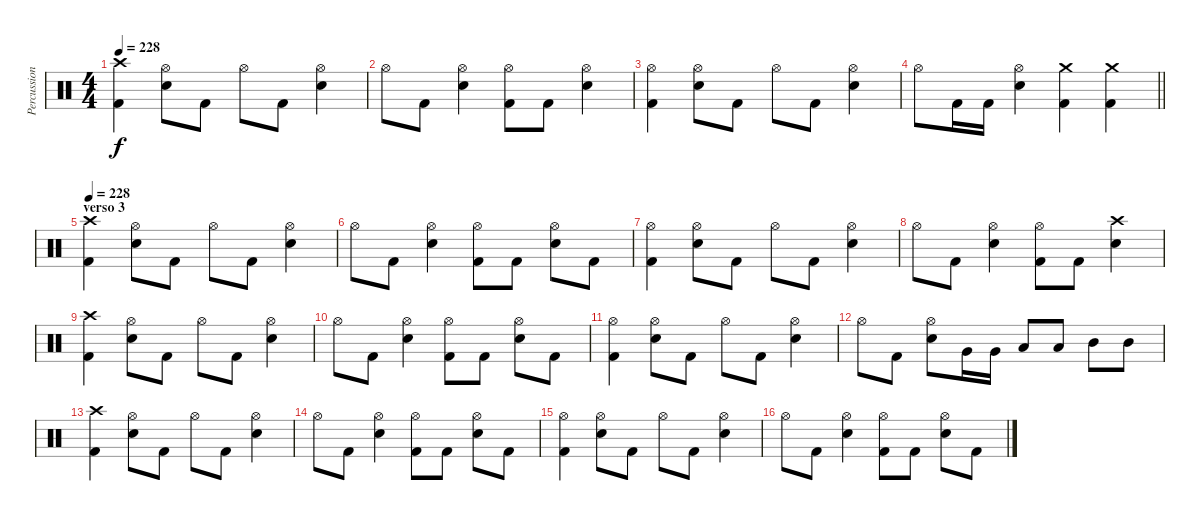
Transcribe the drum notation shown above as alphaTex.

\track ("Percussion" "Percussion") {instrument percussion}
\staff {score}
\articulation defaults
\ts (4 4)
\tempo 228
\clef neutral
\ks c
("Crash high (hit)" "Kick (hit) 2").4{dy f} ("Hi-Hat (open)" "Snare (hit) 2").8 "Kick (hit) 2".8 "Hi-Hat (open)".8 "Kick (hit) 2".8 ("Hi-Hat (open)" "Snare (hit) 2").4 |
"Hi-Hat (open)".8 "Kick (hit) 2".8 ("Hi-Hat (open)" "Snare (hit) 2").4 ("Hi-Hat (open)" "Kick (hit) 2").8 "Kick (hit) 2".8 ("Hi-Hat (open)" "Snare (hit) 2").4 |
("Hi-Hat (open)" "Kick (hit) 2").4 ("Hi-Hat (open)" "Snare (hit) 2").8 "Kick (hit) 2".8 "Hi-Hat (open)".8 "Kick (hit) 2".8 ("Hi-Hat (open)" "Snare (hit) 2").4 |
\barLineRight lightlight "Hi-Hat (open)".8 "Kick (hit) 2".16 "Kick (hit) 2".16
("Hi-Hat (open)" "Snare (hit) 2").4 ("Crash medium (hit)" "Kick (hit) 2").4 ("Crash medium (hit)" "Kick (hit) 2").4 |
\section ("" "verso 3")
\tempo 228
("Crash high (hit)" "Kick (hit) 2").4 ("Hi-Hat (open)" "Snare (hit) 2").8 "Kick (hit) 2".8 "Hi-Hat (open)".8 "Kick (hit) 2".8 ("Hi-Hat (open)" "Snare (hit) 2").4 |
"Hi-Hat (open)".8 "Kick (hit) 2".8 ("Hi-Hat (open)" "Snare (hit) 2").4 ("Hi-Hat (open)" "Kick (hit) 2").8 "Kick (hit) 2".8 ("Hi-Hat (open)" "Snare (hit) 2").8 "Kick (hit) 2".8 |
("Hi-Hat (open)" "Kick (hit) 2").4 ("Hi-Hat (open)" "Snare (hit) 2").8 "Kick (hit) 2".8 "Hi-Hat (open)".8 "Kick (hit) 2".8 ("Hi-Hat (open)" "Snare (hit) 2").4 |
"Hi-Hat (open)".8 "Kick (hit) 2".8 ("Hi-Hat (open)" "Snare (hit) 2").4 ("Hi-Hat (open)" "Kick (hit) 2").8 "Kick (hit) 2".8 ("Crash high (hit)" "Snare (hit) 2").4 |
("Crash high (hit)" "Kick (hit) 2").4 ("Hi-Hat (open)" "Snare (hit) 2").8 "Kick (hit) 2".8 "Hi-Hat (open)".8 "Kick (hit) 2".8 ("Hi-Hat (open)" "Snare (hit) 2").4 |
"Hi-Hat (open)".8 "Kick (hit) 2".8 ("Hi-Hat (open)" "Snare (hit) 2").4 ("Hi-Hat (open)" "Kick (hit) 2").8 "Kick (hit) 2".8 ("Hi-Hat (open)" "Snare (hit) 2").8 "Kick (hit) 2".8 |
("Hi-Hat (open)" "Kick (hit) 2").4 ("Hi-Hat (open)" "Snare (hit) 2").8 "Kick (hit) 2".8 "Hi-Hat (open)".8 "Kick (hit) 2".8 ("Hi-Hat (open)" "Snare (hit) 2").4 |
"Hi-Hat (open)".8 "Kick (hit) 2".8 ("Hi-Hat (open)" "Snare (hit) 2").8 "Very Low Tom (hit)".16 "Very Low Tom (hit)".16 "Low Tom (hit)".8 "Low Tom (hit)".8 "Mid Tom (hit)".8 "Mid Tom (hit)".8 |
("Crash high (hit)" "Kick (hit) 2").4 ("Hi-Hat (open)" "Snare (hit) 2").8 "Kick (hit) 2".8 "Hi-Hat (open)".8 "Kick (hit) 2".8 ("Hi-Hat (open)" "Snare (hit) 2").4 |
"Hi-Hat (open)".8 "Kick (hit) 2".8 ("Hi-Hat (open)" "Snare (hit) 2").4 ("Hi-Hat (open)" "Kick (hit) 2").8 "Kick (hit) 2".8 ("Hi-Hat (open)" "Snare (hit) 2").8 "Kick (hit) 2".8 |
("Hi-Hat (open)" "Kick (hit) 2").4 ("Hi-Hat (open)" "Snare (hit) 2").8 "Kick (hit) 2".8 "Hi-Hat (open)".8 "Kick (hit) 2".8 ("Hi-Hat (open)" "Snare (hit) 2").4 |
"Hi-Hat (open)".8 "Kick (hit) 2".8 ("Hi-Hat (open)" "Snare (hit) 2").4 ("Hi-Hat (open)" "Kick (hit) 2").8 "Kick (hit) 2".8 ("Hi-Hat (open)" "Snare (hit) 2").8 "Kick (hit) 2".8
